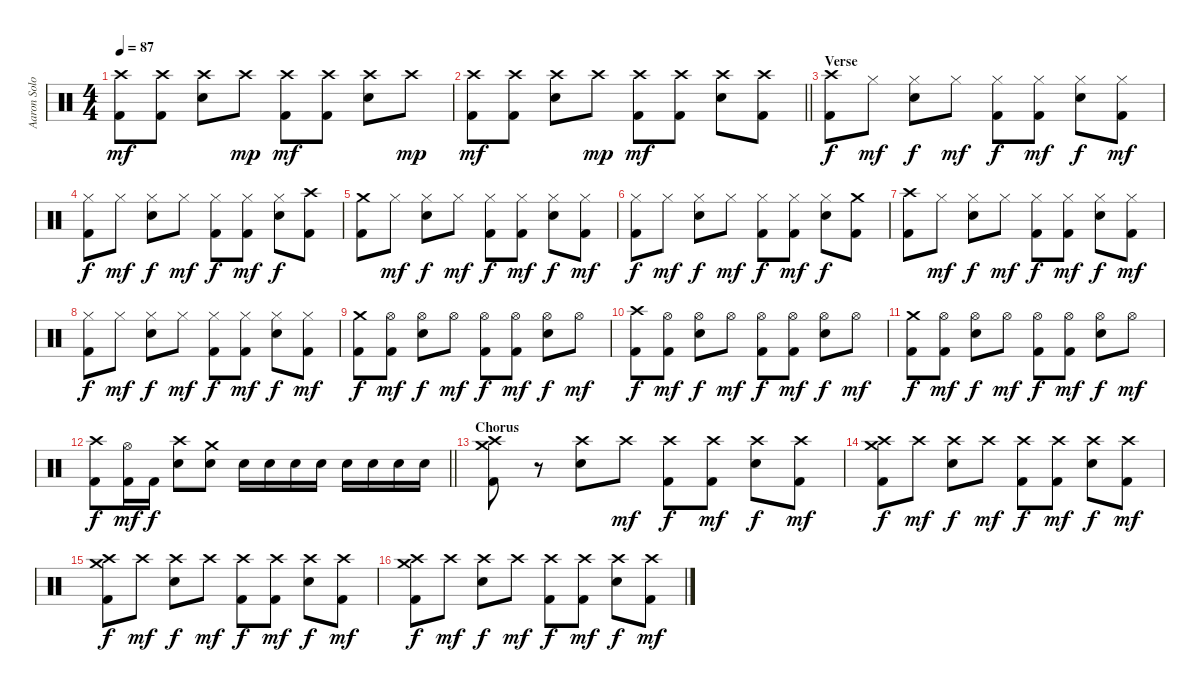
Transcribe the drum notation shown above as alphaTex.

\track ("Aaron Solowoniuk" "Aaron Solo") {instrument percussion}
\staff {score}
\articulation defaults
\ts (4 4)
\tempo 87
\clef neutral
\ks c
("Crash high (hit)" "Kick (hit) 2").8{dy mf} ("Crash high (hit)" "Kick (hit) 2").8 ("Crash high (hit)" "Snare (hit) 2").8 "Crash high (hit)".8{dy mp} ("Crash high (hit)" "Kick (hit) 2").8{dy mf} ("Crash high (hit)" "Kick (hit) 2").8 ("Crash high (hit)" "Snare (hit) 2").8 "Crash high (hit)".8{dy mp} |
\barLineRight lightlight
("Crash high (hit)" "Kick (hit) 2").8{dy mf} ("Crash high (hit)" "Kick (hit) 2").8 ("Crash high (hit)" "Snare (hit) 2").8 "Crash high (hit)".8{dy mp} ("Crash high (hit)" "Kick (hit) 2").8{dy mf} ("Crash high (hit)" "Kick (hit) 2").8 ("Crash high (hit)" "Snare (hit) 2").8 ("Crash high (hit)" "Kick (hit) 2").8 |
\section ("" "Verse")
("Crash high (hit)" "Kick (hit) 2").8{dy f} "Hi-Hat (closed)".8{dy mf} ("Hi-Hat (closed)" "Snare (hit) 2").8{dy f} "Hi-Hat (closed)".8{dy mf} ("Hi-Hat (closed)" "Kick (hit) 2").8{dy f} ("Hi-Hat (closed)" "Kick (hit) 2").8{dy mf} ("Hi-Hat (closed)" "Snare (hit) 2").8{dy f} ("Hi-Hat (closed)" "Kick (hit) 2").8{dy mf} |
("Hi-Hat (closed)" "Kick (hit) 2").8{dy f} "Hi-Hat (closed)".8{dy mf} ("Hi-Hat (closed)" "Snare (hit) 2").8{dy f} "Hi-Hat (closed)".8{dy mf} ("Hi-Hat (closed)" "Kick (hit) 2").8{dy f} ("Hi-Hat (closed)" "Kick (hit) 2").8{dy mf} ("Hi-Hat (closed)" "Snare (hit) 2").8{dy f} ("Crash high (hit)" "Kick (hit) 2").8 |
("Crash medium (hit)" "Kick (hit) 2").8 "Hi-Hat (closed)".8{dy mf} ("Hi-Hat (closed)" "Snare (hit) 2").8{dy f} "Hi-Hat (closed)".8{dy mf} ("Hi-Hat (closed)" "Kick (hit) 2").8{dy f} ("Hi-Hat (closed)" "Kick (hit) 2").8{dy mf} ("Hi-Hat (closed)" "Snare (hit) 2").8{dy f} ("Hi-Hat (closed)" "Kick (hit) 2").8{dy mf} |
("Hi-Hat (closed)" "Kick (hit) 2").8{dy f} "Hi-Hat (closed)".8{dy mf} ("Hi-Hat (closed)" "Snare (hit) 2").8{dy f} "Hi-Hat (closed)".8{dy mf} ("Hi-Hat (closed)" "Kick (hit) 2").8{dy f} ("Hi-Hat (closed)" "Kick (hit) 2").8{dy mf} ("Hi-Hat (closed)" "Snare (hit) 2").8{dy f} ("Crash medium (hit)" "Kick (hit) 2").8 |
("Crash high (hit)" "Kick (hit) 2").8 "Hi-Hat (closed)".8{dy mf} ("Hi-Hat (closed)" "Snare (hit) 2").8{dy f} "Hi-Hat (closed)".8{dy mf} ("Hi-Hat (closed)" "Kick (hit) 2").8{dy f} ("Hi-Hat (closed)" "Kick (hit) 2").8{dy mf} ("Hi-Hat (closed)" "Snare (hit) 2").8{dy f} ("Hi-Hat (closed)" "Kick (hit) 2").8{dy mf} |
("Hi-Hat (closed)" "Kick (hit) 2").8{dy f} "Hi-Hat (closed)".8{dy mf} ("Hi-Hat (closed)" "Snare (hit) 2").8{dy f} "Hi-Hat (closed)".8{dy mf} ("Hi-Hat (closed)" "Kick (hit) 2").8{dy f} ("Hi-Hat (closed)" "Kick (hit) 2").8{dy mf} ("Hi-Hat (closed)" "Snare (hit) 2").8{dy f} ("Hi-Hat (closed)" "Kick (hit) 2").8{dy mf} |
("Crash medium (hit)" "Kick (hit) 2").8{dy f} ("Hi-Hat (open)" "Kick (hit) 2").8{dy mf} ("Hi-Hat (open)" "Snare (hit) 2").8{dy f} "Hi-Hat (open)".8{dy mf} ("Hi-Hat (open)" "Kick (hit) 2").8{dy f} ("Hi-Hat (open)" "Kick (hit) 2").8{dy mf} ("Hi-Hat (open)" "Snare (hit) 2").8{dy f} "Hi-Hat (open)".8{dy mf} |
("Crash high (hit)" "Kick (hit) 2").8{dy f} ("Hi-Hat (open)" "Kick (hit) 2").8{dy mf} ("Hi-Hat (open)" "Snare (hit) 2").8{dy f} "Hi-Hat (open)".8{dy mf} ("Hi-Hat (open)" "Kick (hit) 2").8{dy f} ("Hi-Hat (open)" "Kick (hit) 2").8{dy mf} ("Hi-Hat (open)" "Snare (hit) 2").8{dy f} "Hi-Hat (open)".8{dy mf} |
("Crash medium (hit)" "Kick (hit) 2").8{dy f} ("Hi-Hat (open)" "Kick (hit) 2").8{dy mf} ("Hi-Hat (open)" "Snare (hit) 2").8{dy f} "Hi-Hat (open)".8{dy mf} ("Hi-Hat (open)" "Kick (hit) 2").8{dy f} ("Hi-Hat (open)" "Kick (hit) 2").8{dy mf} ("Hi-Hat (open)" "Snare (hit) 2").8{dy f} "Hi-Hat (open)".8{dy mf} |
\barLineRight lightlight
("Crash high (hit)" "Kick (hit) 2").8{dy f} ("Hi-Hat (open)" "Kick (hit) 2").16{dy mf} "Kick (hit) 2".16{dy f} ("Crash high (hit)" "Snare (hit) 2").8 ("Crash medium (hit)" "Snare (hit) 2").8 "Snare (hit) 2".16 "Snare (hit) 2".16 "Snare (hit) 2".16 "Snare (hit) 2".16 "Snare (hit) 2".16 "Snare (hit) 2".16 "Snare (hit) 2".16 "Snare (hit) 2".16 |
\section ("" "Chorus")
("Crash high (hit)" "Crash medium (hit)" "Kick (hit) 2").8 r.8 ("Crash high (hit)" "Snare (hit) 2").8 "Crash high (hit)".8{dy mf} ("Crash high (hit)" "Kick (hit) 2").8{dy f} ("Crash high (hit)" "Kick (hit) 2").8{dy mf} ("Crash high (hit)" "Snare (hit) 2").8{dy f} ("Crash high (hit)" "Kick (hit) 2").8{dy mf} |
("Crash high (hit)" "Crash medium (hit)" "Kick (hit) 2").8{dy f} "Crash high (hit)".8{dy mf} ("Crash high (hit)" "Snare (hit) 2").8{dy f} "Crash high (hit)".8{dy mf} ("Crash high (hit)" "Kick (hit) 2").8{dy f} ("Crash high (hit)" "Kick (hit) 2").8{dy mf} ("Crash high (hit)" "Snare (hit) 2").8{dy f} ("Crash high (hit)" "Kick (hit) 2").8{dy mf} |
("Crash high (hit)" "Crash medium (hit)" "Kick (hit) 2").8{dy f} "Crash high (hit)".8{dy mf} ("Crash high (hit)" "Snare (hit) 2").8{dy f} "Crash high (hit)".8{dy mf} ("Crash high (hit)" "Kick (hit) 2").8{dy f} ("Crash high (hit)" "Kick (hit) 2").8{dy mf} ("Crash high (hit)" "Snare (hit) 2").8{dy f} ("Crash high (hit)" "Kick (hit) 2").8{dy mf} |
("Crash high (hit)" "Crash medium (hit)" "Kick (hit) 2").8{dy f} "Crash high (hit)".8{dy mf} ("Crash high (hit)" "Snare (hit) 2").8{dy f} "Crash high (hit)".8{dy mf} ("Crash high (hit)" "Kick (hit) 2").8{dy f} ("Crash high (hit)" "Kick (hit) 2").8{dy mf} ("Crash high (hit)" "Snare (hit) 2").8{dy f} ("Crash high (hit)" "Kick (hit) 2").8{dy mf}
